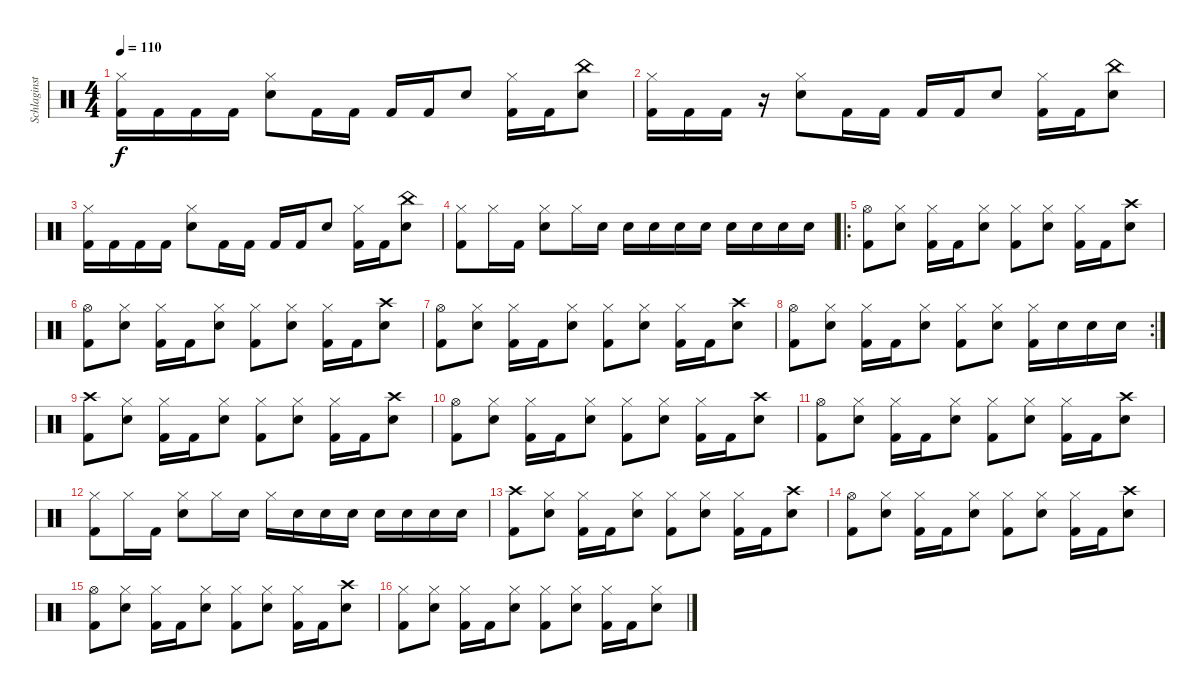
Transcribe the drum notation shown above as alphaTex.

\track ("Schlaginstrumente - Auswahl" "Schlaginst") {instrument percussion}
\staff {score}
\articulation defaults
\ts (4 4)
\tempo 110
\clef neutral
\ks c
("Hi-Hat (closed)" "Kick (hit) 2").16{dy f} "Kick (hit) 2".16 "Kick (hit) 2".16 "Kick (hit) 2".16 ("Hi-Hat (closed)" "Snare (hit) 2").8 "Kick (hit) 2".16 "Kick (hit) 2".16 "Kick (hit) 2".16 "Kick (hit) 2".16 "Snare (hit) 2".8 ("Hi-Hat (closed)" "Kick (hit) 2").16 "Kick (hit) 2".16 ("China (hit)" "Snare (hit) 2").8 |
("Hi-Hat (closed)" "Kick (hit) 2").16 "Kick (hit) 2".16 "Kick (hit) 2".16 r.16 ("Hi-Hat (closed)" "Snare (hit) 2").8 "Kick (hit) 2".16 "Kick (hit) 2".16 "Kick (hit) 2".16 "Kick (hit) 2".16 "Snare (hit) 2".8 ("Hi-Hat (closed)" "Kick (hit) 2").16 "Kick (hit) 2".16 ("China (hit)" "Snare (hit) 2").8 |
("Hi-Hat (closed)" "Kick (hit) 2").16 "Kick (hit) 2".16 "Kick (hit) 2".16 "Kick (hit) 2".16 ("Hi-Hat (closed)" "Snare (hit) 2").8 "Kick (hit) 2".16 "Kick (hit) 2".16 "Kick (hit) 2".16 "Kick (hit) 2".16 "Snare (hit) 2".8 ("Hi-Hat (closed)" "Kick (hit) 2").16 "Kick (hit) 2".16 ("China (hit)" "Snare (hit) 2").8 |
("Hi-Hat (closed)" "Kick (hit) 2").8 "Hi-Hat (closed)".16 "Kick (hit) 2".16 ("Hi-Hat (closed)" "Snare (hit) 2").8 "Hi-Hat (closed)".16 "Snare (hit) 2".16 "Snare (hit) 2".16 "Snare (hit) 2".16 "Snare (hit) 2".16 "Snare (hit) 2".16 "Snare (hit) 2".16 "Snare (hit) 2".16 "Snare (hit) 2".16 "Snare (hit) 2".16 |
\ro
("Hi-Hat (open)" "Kick (hit) 2").8 ("Hi-Hat (closed)" "Snare (hit) 2").8 ("Hi-Hat (closed)" "Kick (hit) 2").16 "Kick (hit) 2".16 ("Hi-Hat (closed)" "Snare (hit) 2").8 ("Hi-Hat (closed)" "Kick (hit) 2").8 ("Hi-Hat (closed)" "Snare (hit) 2").8 ("Hi-Hat (closed)" "Kick (hit) 2").16 "Kick (hit) 2".16 ("Crash high (hit)" "Snare (hit) 2").8 |
("Hi-Hat (open)" "Kick (hit) 2").8 ("Hi-Hat (closed)" "Snare (hit) 2").8 ("Hi-Hat (closed)" "Kick (hit) 2").16 "Kick (hit) 2".16 ("Hi-Hat (closed)" "Snare (hit) 2").8 ("Hi-Hat (closed)" "Kick (hit) 2").8 ("Hi-Hat (closed)" "Snare (hit) 2").8 ("Hi-Hat (closed)" "Kick (hit) 2").16 "Kick (hit) 2".16 ("Crash high (hit)" "Snare (hit) 2").8 |
("Hi-Hat (open)" "Kick (hit) 2").8 ("Hi-Hat (closed)" "Snare (hit) 2").8 ("Hi-Hat (closed)" "Kick (hit) 2").16 "Kick (hit) 2".16 ("Hi-Hat (closed)" "Snare (hit) 2").8 ("Hi-Hat (closed)" "Kick (hit) 2").8 ("Hi-Hat (closed)" "Snare (hit) 2").8 ("Hi-Hat (closed)" "Kick (hit) 2").16 "Kick (hit) 2".16 ("Crash high (hit)" "Snare (hit) 2").8 |
\rc 2
("Hi-Hat (open)" "Kick (hit) 2").8 ("Hi-Hat (closed)" "Snare (hit) 2").8 ("Hi-Hat (closed)" "Kick (hit) 2").16 "Kick (hit) 2".16 ("Hi-Hat (closed)" "Snare (hit) 2").8 ("Hi-Hat (closed)" "Kick (hit) 2").8 ("Hi-Hat (closed)" "Snare (hit) 2").8 ("Hi-Hat (closed)" "Kick (hit) 2").16 "Snare (hit) 2".16 "Snare (hit) 2".16 "Snare (hit) 2".16 |
("Crash high (hit)" "Kick (hit) 2").8 ("Hi-Hat (closed)" "Snare (hit) 2").8 ("Hi-Hat (closed)" "Kick (hit) 2").16 "Kick (hit) 2".16 ("Hi-Hat (closed)" "Snare (hit) 2").8 ("Hi-Hat (closed)" "Kick (hit) 2").8 ("Hi-Hat (closed)" "Snare (hit) 2").8 ("Hi-Hat (closed)" "Kick (hit) 2").16 "Kick (hit) 2".16 ("Crash high (hit)" "Snare (hit) 2").8 |
("Hi-Hat (open)" "Kick (hit) 2").8 ("Hi-Hat (closed)" "Snare (hit) 2").8 ("Hi-Hat (closed)" "Kick (hit) 2").16 "Kick (hit) 2".16 ("Hi-Hat (closed)" "Snare (hit) 2").8 ("Hi-Hat (closed)" "Kick (hit) 2").8 ("Hi-Hat (closed)" "Snare (hit) 2").8 ("Hi-Hat (closed)" "Kick (hit) 2").16 "Kick (hit) 2".16 ("Crash high (hit)" "Snare (hit) 2").8 |
("Hi-Hat (open)" "Kick (hit) 2").8 ("Hi-Hat (closed)" "Snare (hit) 2").8 ("Hi-Hat (closed)" "Kick (hit) 2").16 "Kick (hit) 2".16 ("Hi-Hat (closed)" "Snare (hit) 2").8 ("Hi-Hat (closed)" "Kick (hit) 2").8 ("Hi-Hat (closed)" "Snare (hit) 2").8 ("Hi-Hat (closed)" "Kick (hit) 2").16 "Kick (hit) 2".16 ("Crash high (hit)" "Snare (hit) 2").8 |
("Hi-Hat (closed)" "Kick (hit) 2").8 "Hi-Hat (closed)".16 "Kick (hit) 2".16 ("Hi-Hat (closed)" "Snare (hit) 2").8 "Hi-Hat (closed)".16 "Snare (hit) 2".16 "Hi-Hat (closed)".16 "Snare (hit) 2".16 "Snare (hit) 2".16 "Snare (hit) 2".16 "Snare (hit) 2".16 "Snare (hit) 2".16 "Snare (hit) 2".16 "Snare (hit) 2".16 |
("Crash high (hit)" "Kick (hit) 2").8 ("Hi-Hat (closed)" "Snare (hit) 2").8 ("Hi-Hat (closed)" "Kick (hit) 2").16 "Kick (hit) 2".16 ("Hi-Hat (closed)" "Snare (hit) 2").8 ("Hi-Hat (closed)" "Kick (hit) 2").8 ("Hi-Hat (closed)" "Snare (hit) 2").8 ("Hi-Hat (closed)" "Kick (hit) 2").16 "Kick (hit) 2".16 ("Crash high (hit)" "Snare (hit) 2").8 |
("Hi-Hat (open)" "Kick (hit) 2").8 ("Hi-Hat (closed)" "Snare (hit) 2").8 ("Hi-Hat (closed)" "Kick (hit) 2").16 "Kick (hit) 2".16 ("Hi-Hat (closed)" "Snare (hit) 2").8 ("Hi-Hat (closed)" "Kick (hit) 2").8 ("Hi-Hat (closed)" "Snare (hit) 2").8 ("Hi-Hat (closed)" "Kick (hit) 2").16 "Kick (hit) 2".16 ("Crash high (hit)" "Snare (hit) 2").8 |
("Hi-Hat (open)" "Kick (hit) 2").8 ("Hi-Hat (closed)" "Snare (hit) 2").8 ("Hi-Hat (closed)" "Kick (hit) 2").16 "Kick (hit) 2".16 ("Hi-Hat (closed)" "Snare (hit) 2").8 ("Hi-Hat (closed)" "Kick (hit) 2").8 ("Hi-Hat (closed)" "Snare (hit) 2").8 ("Hi-Hat (closed)" "Kick (hit) 2").16 "Kick (hit) 2".16 ("Crash high (hit)" "Snare (hit) 2").8 |
("Hi-Hat (closed)" "Kick (hit) 2").8 ("Hi-Hat (closed)" "Snare (hit) 2").8 ("Hi-Hat (closed)" "Kick (hit) 2").16 "Kick (hit) 2".16 ("Hi-Hat (closed)" "Snare (hit) 2").8 ("Hi-Hat (closed)" "Kick (hit) 2").8 ("Hi-Hat (closed)" "Snare (hit) 2").8 ("Hi-Hat (closed)" "Kick (hit) 2").16 "Kick (hit) 2".16 ("Hi-Hat (closed)" "Snare (hit) 2").8
